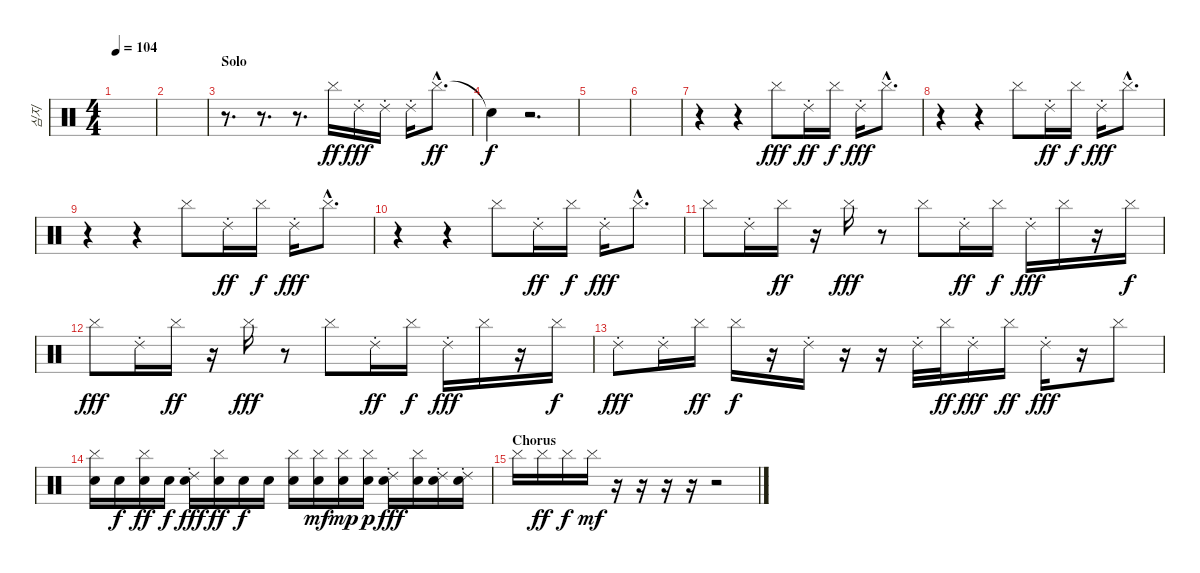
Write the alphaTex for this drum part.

\track ("심지" "심지") {instrument percussion}
\staff {score}
\articulation defaults
\ts (4 4)
\tempo 104
\clef neutral
\ks c
|
|
\section ("" "Solo")
r.8{d} r.8{d} r.8{d} "Cymbal (hit)".16{dy ff} "Ride (choke) 2".16{dy fff} "Ride (choke) 2".16 "Ride (choke) 2".16 "Cymbal (hit)"{hac}.8{d dy ff} |
"Snare (hit)"{t}.4{dy f} r.2{d} |
|
|
r.4 r.4 "Cymbal (hit)".8{dy fff} "Ride (choke) 2".16{dy ff} "Cymbal (hit)".16{dy f} "Ride (choke) 2".16{dy fff} "Cymbal (hit)"{hac}.8{d} |
r.4 r.4 "Cymbal (hit)".8 "Ride (choke) 2".16{dy ff} "Cymbal (hit)".16{dy f} "Ride (choke) 2".16{dy fff} "Cymbal (hit)"{hac}.8{d} |
r.4 r.4 "Cymbal (hit)".8 "Ride (choke) 2".16{dy ff} "Cymbal (hit)".16{dy f} "Ride (choke) 2".16{dy fff} "Cymbal (hit)"{hac}.8{d} |
r.4 r.4 "Cymbal (hit)".8 "Ride (choke) 2".16{dy ff} "Cymbal (hit)".16{dy f} "Ride (choke) 2".16{dy fff} "Cymbal (hit)"{hac}.8{d} |
"Cymbal (hit)".8 "Ride (choke) 2".16 "Cymbal (hit)".16{dy ff} r.16 "Cymbal (hit)".16{dy fff} r.8 "Cymbal (hit)".8 "Ride (choke) 2".16{dy ff} "Cymbal (hit)".16{dy f} "Ride (choke) 2".16{dy fff} "Cymbal (hit)".16 r.16 "Cymbal (hit)".16{dy f} |
"Cymbal (hit)".8{dy fff} "Ride (choke) 2".16 "Cymbal (hit)".16{dy ff} r.16 "Cymbal (hit)".16{dy fff} r.8 "Cymbal (hit)".8 "Ride (choke) 2".16{dy ff} "Cymbal (hit)".16{dy f} "Ride (choke) 2".16{dy fff} "Cymbal (hit)".16 r.16 "Cymbal (hit)".16{dy f} |
"Ride (choke) 2".8{dy fff} "Ride (choke) 2".16 "Cymbal (hit)".16{dy ff} "Cymbal (hit)".16{dy f} r.16 "Ride (choke) 2".16 r.16 r.16 "Ride (choke) 2".32 "Cymbal (hit)".32{dy ff} "Ride (choke) 2".16{dy fff} "Cymbal (hit)".16{dy ff} "Ride (choke) 2".16{dy fff} r.16 "Cymbal (hit)".8 |
("Cymbal (hit)" "Snare (hit)"{x}).16 "Snare (hit)"{x}.16{dy f} ("Cymbal (hit)" "Snare (hit)"{x}).16{dy ff} "Snare (hit)"{x}.16{dy f} ("Ride (choke) 2" "Snare (hit)"{x}).16{dy fff} ("Cymbal (hit)" "Snare (hit)"{x}).16{dy ff} "Snare (hit)"{x}.16{dy f} "Snare (hit)"{x}.16 ("Cymbal (hit)" "Snare (hit)"{x}).16 ("Cymbal (hit)" "Snare (hit)"{x}).16{dy mf} ("Cymbal (hit)" "Snare (hit)"{x}).16{dy mp} ("Cymbal (hit)" "Snare (hit)"{x}).16{dy p} ("Ride (choke) 2" "Snare (hit)"{x}).16{dy fff} ("Cymbal (hit)" "Snare (hit)"{x}).16 ("Ride (choke) 2" "Snare (hit)"{x}).16 ("Ride (choke) 2" "Snare (hit)"{x}).16 |
\section ("" "Chorus")
"Cymbal (hit)".16 "Cymbal (hit)".16{dy ff} "Cymbal (hit)".16{dy f} "Cymbal (hit)".16{dy mf} r.16 r.16 r.16 r.16 r.2
